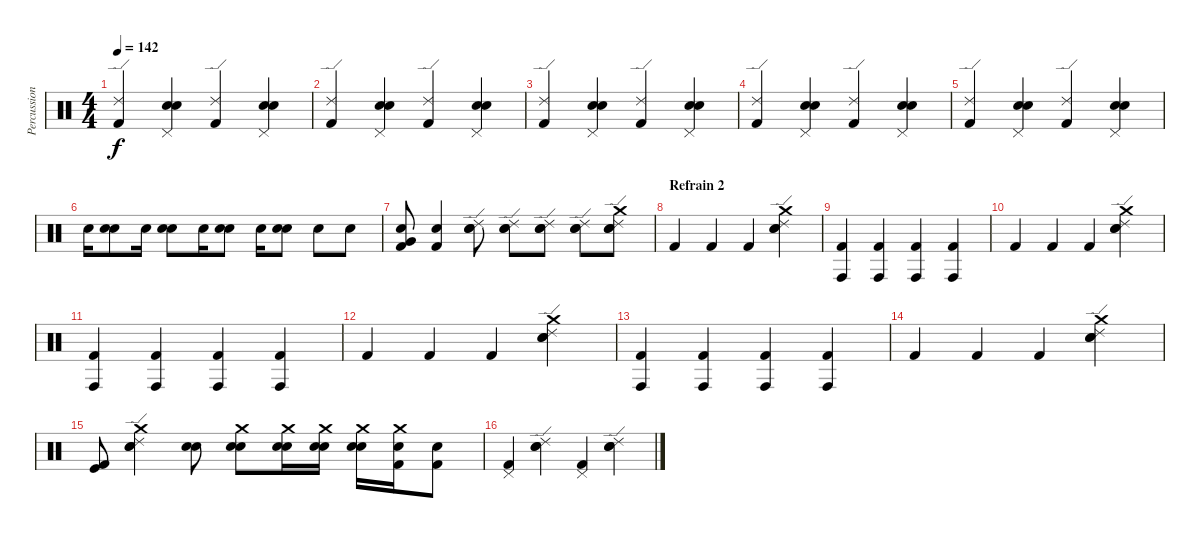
\track ("Percussions" "Percussion") {instrument percussion}
\staff {score}
\articulation defaults
\ts (4 4)
\tempo 142
\clef neutral
\ks c
("Kick (hit) 2" "Ride (edge) 2").4{dy f} ("Snare (hit) 2" "Electric Snare (hit)" "Pedal Hi-Hat (hit)").4 ("Kick (hit) 2" "Ride (edge) 2").4 ("Snare (hit) 2" "Electric Snare (hit)" "Pedal Hi-Hat (hit)").4 |
("Kick (hit) 2" "Ride (edge) 2").4 ("Snare (hit) 2" "Electric Snare (hit)" "Pedal Hi-Hat (hit)").4 ("Kick (hit) 2" "Ride (edge) 2").4 ("Snare (hit) 2" "Electric Snare (hit)" "Pedal Hi-Hat (hit)").4 |
("Kick (hit) 2" "Ride (edge) 2").4 ("Snare (hit) 2" "Electric Snare (hit)" "Pedal Hi-Hat (hit)").4 ("Kick (hit) 2" "Ride (edge) 2").4 ("Snare (hit) 2" "Electric Snare (hit)" "Pedal Hi-Hat (hit)").4 |
("Kick (hit) 2" "Ride (edge) 2").4 ("Snare (hit) 2" "Electric Snare (hit)" "Pedal Hi-Hat (hit)").4 ("Kick (hit) 2" "Ride (edge) 2").4 ("Snare (hit) 2" "Electric Snare (hit)" "Pedal Hi-Hat (hit)").4 |
("Kick (hit) 2" "Ride (edge) 2").4 ("Snare (hit) 2" "Electric Snare (hit)" "Pedal Hi-Hat (hit)").4 ("Kick (hit) 2" "Ride (edge) 2").4 ("Snare (hit) 2" "Electric Snare (hit)" "Pedal Hi-Hat (hit)").4 |
"Snare (hit) 2".16 ("Snare (hit) 2" "Electric Snare (hit)").8 "Snare (hit) 2".16 ("Snare (hit) 2" "Electric Snare (hit)").8 "Snare (hit) 2".16 ("Snare (hit) 2" "Electric Snare (hit)").8 "Snare (hit) 2".16 ("Snare (hit) 2" "Electric Snare (hit)").8 "Electric Snare (hit)".8 "Electric Snare (hit)".8 |
("Kick (hit) 2" "Very Low Tom (hit)" "Electric Snare (hit)").8 ("Kick (hit) 2" "Electric Snare (hit)").4 ("Snare (hit) 2" "Electric Snare (hit)" "Ride (edge) 2").8 ("Snare (hit) 2" "Electric Snare (hit)" "Ride (edge) 2").8 ("Snare (hit) 2" "Electric Snare (hit)" "Ride (edge) 2").8 ("Snare (hit) 2" "Electric Snare (hit)" "Ride (edge) 2").8 ("Snare (hit) 2" "Electric Snare (hit)" "Ride (edge) 2" "Crash medium (hit)").8 |
\section ("" "Refrain 2")
"Kick (hit) 2".4 "Kick (hit) 2".4 "Kick (hit) 2".4 ("Snare (hit) 2" "Electric Snare (hit)" "Ride (edge) 2" "Crash medium (hit)").4 |
("Kick (hit) 2" "Conga high (hit)").4 ("Kick (hit) 2" "Conga high (hit)").4 ("Kick (hit) 2" "Conga high (hit)").4 ("Kick (hit) 2" "Conga high (hit)").4 |
"Kick (hit) 2".4 "Kick (hit) 2".4 "Kick (hit) 2".4 ("Snare (hit) 2" "Electric Snare (hit)" "Ride (edge) 2" "Crash medium (hit)").4 |
("Kick (hit) 2" "Conga high (hit)").4 ("Kick (hit) 2" "Conga high (hit)").4 ("Kick (hit) 2" "Conga high (hit)").4 ("Kick (hit) 2" "Conga high (hit)").4 |
"Kick (hit) 2".4 "Kick (hit) 2".4 "Kick (hit) 2".4 ("Snare (hit) 2" "Electric Snare (hit)" "Ride (edge) 2" "Crash medium (hit)").4 |
("Kick (hit) 2" "Conga high (hit)").4 ("Kick (hit) 2" "Conga high (hit)").4 ("Kick (hit) 2" "Conga high (hit)").4 ("Kick (hit) 2" "Conga high (hit)").4 |
"Kick (hit) 2".4 "Kick (hit) 2".4 "Kick (hit) 2".4 ("Snare (hit) 2" "Electric Snare (hit)" "Ride (edge) 2" "Crash medium (hit)").4 |
("Kick (hit) 2" "Kick (hit)").8 ("Snare (hit) 2" "Electric Snare (hit)" "Ride (edge) 2" "Crash medium (hit)").4 ("Snare (hit) 2" "Electric Snare (hit)").8 ("Snare (hit) 2" "Electric Snare (hit)" "Crash medium (hit)").8 ("Snare (hit) 2" "Electric Snare (hit)" "Crash medium (hit)").16 ("Snare (hit) 2" "Electric Snare (hit)" "Crash medium (hit)").16 ("Snare (hit) 2" "Electric Snare (hit)" "Crash medium (hit)").16 ("Kick (hit) 2" "Electric Snare (hit)" "Crash medium (hit)").16 ("Kick (hit) 2" "Electric Snare (hit)").8 |
("Kick (hit) 2" "Pedal Hi-Hat (hit)").4 ("Snare (hit) 2" "Electric Snare (hit)" "Ride (edge) 2").4 ("Kick (hit) 2" "Pedal Hi-Hat (hit)").4 ("Snare (hit) 2" "Electric Snare (hit)" "Ride (edge) 2").4
